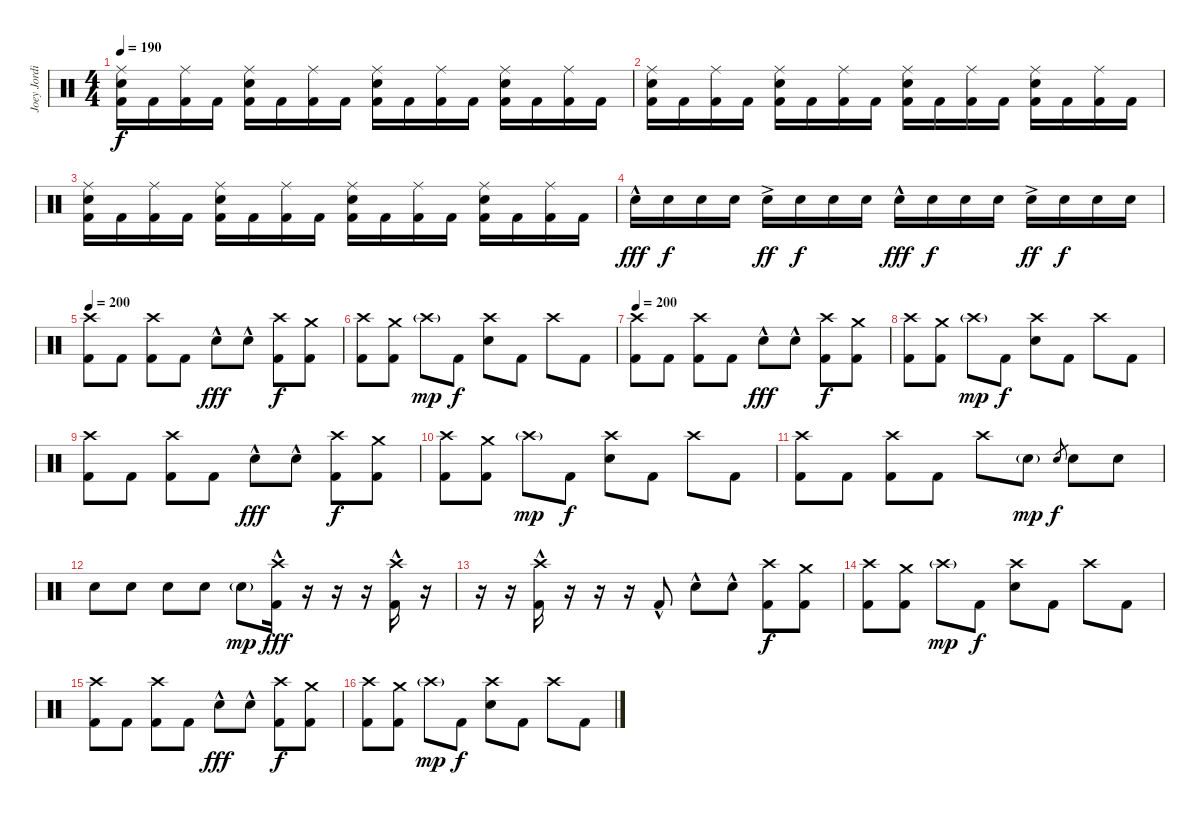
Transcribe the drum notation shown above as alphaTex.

\track ("Joey Jordison" "Joey Jordi") {instrument percussion}
\staff {score}
\articulation defaults
\ts (4 4)
\tempo 190
\clef neutral
\ks c
("Ride (middle)" "Electric Snare (hit)" "Kick (hit) 2").16{dy f} "Kick (hit) 2".16 ("Ride (middle)" "Kick (hit) 2").16 "Kick (hit) 2".16 ("Ride (middle)" "Electric Snare (hit)" "Kick (hit) 2").16 "Kick (hit) 2".16 ("Ride (middle)" "Kick (hit) 2").16 "Kick (hit) 2".16 ("Ride (middle)" "Electric Snare (hit)" "Kick (hit) 2").16 "Kick (hit) 2".16 ("Ride (middle)" "Kick (hit) 2").16 "Kick (hit) 2".16 ("Ride (middle)" "Electric Snare (hit)" "Kick (hit) 2").16 "Kick (hit) 2".16 ("Ride (middle)" "Kick (hit) 2").16 "Kick (hit) 2".16 |
("Ride (middle)" "Electric Snare (hit)" "Kick (hit) 2").16 "Kick (hit) 2".16 ("Ride (middle)" "Kick (hit) 2").16 "Kick (hit) 2".16 ("Ride (middle)" "Electric Snare (hit)" "Kick (hit) 2").16 "Kick (hit) 2".16 ("Ride (middle)" "Kick (hit) 2").16 "Kick (hit) 2".16 ("Ride (middle)" "Electric Snare (hit)" "Kick (hit) 2").16 "Kick (hit) 2".16 ("Ride (middle)" "Kick (hit) 2").16 "Kick (hit) 2".16 ("Ride (middle)" "Electric Snare (hit)" "Kick (hit) 2").16 "Kick (hit) 2".16 ("Ride (middle)" "Kick (hit) 2").16 "Kick (hit) 2".16 |
("Ride (middle)" "Electric Snare (hit)" "Kick (hit) 2").16 "Kick (hit) 2".16 ("Ride (middle)" "Kick (hit) 2").16 "Kick (hit) 2".16 ("Ride (middle)" "Electric Snare (hit)" "Kick (hit) 2").16 "Kick (hit) 2".16 ("Ride (middle)" "Kick (hit) 2").16 "Kick (hit) 2".16 ("Ride (middle)" "Electric Snare (hit)" "Kick (hit) 2").16 "Kick (hit) 2".16 ("Ride (middle)" "Kick (hit) 2").16 "Kick (hit) 2".16 ("Ride (middle)" "Electric Snare (hit)" "Kick (hit) 2").16 "Kick (hit) 2".16 ("Ride (middle)" "Kick (hit) 2").16 "Kick (hit) 2".16 |
"Electric Snare (hit)"{hac}.16{dy fff} "Electric Snare (hit)".16{dy f} "Electric Snare (hit)".16 "Electric Snare (hit)".16 "Electric Snare (hit)"{ac}.16{dy ff} "Electric Snare (hit)".16{dy f} "Electric Snare (hit)".16 "Electric Snare (hit)".16 "Electric Snare (hit)"{hac}.16{dy fff} "Electric Snare (hit)".16{dy f} "Electric Snare (hit)".16 "Electric Snare (hit)".16 "Electric Snare (hit)"{ac}.16{dy ff} "Electric Snare (hit)".16{dy f} "Electric Snare (hit)".16 "Electric Snare (hit)".16 |
\tempo 180
\tempo 200
("Crash high (hit)" "Kick (hit) 2").8 "Kick (hit) 2".8 ("Crash high (hit)" "Kick (hit) 2").8 "Kick (hit) 2".8 "Electric Snare (hit)"{hac}.8{dy fff} "Electric Snare (hit)"{hac}.8 ("Crash high (hit)" "Kick (hit) 2").8{dy f} ("Crash medium (hit)" "Kick (hit) 2").8 |
("Crash high (hit)" "Kick (hit) 2").8 ("Crash medium (hit)" "Kick (hit) 2").8 "Crash high (hit)"{g}.8{dy mp} "Kick (hit) 2".8{dy f} ("Crash high (hit)" "Electric Snare (hit)").8 "Kick (hit) 2".8 "Crash high (hit)".8 "Kick (hit) 2".8 |
\tempo 200
("Crash high (hit)" "Kick (hit) 2").8 "Kick (hit) 2".8 ("Crash high (hit)" "Kick (hit) 2").8 "Kick (hit) 2".8 "Electric Snare (hit)"{hac}.8{dy fff} "Electric Snare (hit)"{hac}.8 ("Crash high (hit)" "Kick (hit) 2").8{dy f} ("Crash medium (hit)" "Kick (hit) 2").8 |
("Crash high (hit)" "Kick (hit) 2").8 ("Crash medium (hit)" "Kick (hit) 2").8 "Crash high (hit)"{g}.8{dy mp} "Kick (hit) 2".8{dy f} ("Crash high (hit)" "Electric Snare (hit)").8 "Kick (hit) 2".8 "Crash high (hit)".8 "Kick (hit) 2".8 |
("Crash high (hit)" "Kick (hit) 2").8 "Kick (hit) 2".8 ("Crash high (hit)" "Kick (hit) 2").8 "Kick (hit) 2".8 "Electric Snare (hit)"{hac}.8{dy fff} "Electric Snare (hit)"{hac}.8 ("Crash high (hit)" "Kick (hit) 2").8{dy f} ("Crash medium (hit)" "Kick (hit) 2").8 |
("Crash high (hit)" "Kick (hit) 2").8 ("Crash medium (hit)" "Kick (hit) 2").8 "Crash high (hit)"{g}.8{dy mp} "Kick (hit) 2".8{dy f} ("Crash high (hit)" "Electric Snare (hit)").8 "Kick (hit) 2".8 "Crash high (hit)".8 "Kick (hit) 2".8 |
("Crash high (hit)" "Kick (hit) 2").8 "Kick (hit) 2".8 ("Crash high (hit)" "Kick (hit) 2").8 "Kick (hit) 2".8 "Crash high (hit)".8 "Electric Snare (hit)"{g}.8{dy mp} "Electric Snare (hit)".8{gr dy f} "Electric Snare (hit)".8 "Electric Snare (hit)".8 |
"Electric Snare (hit)".8 "Electric Snare (hit)".8 "Electric Snare (hit)".8 "Electric Snare (hit)".8 "Electric Snare (hit)"{g}.8{dy mp} ("Crash high (hit)"{hac} "Kick (hit) 2"{hac}).16{dy fff volume 11} r.16{volume 0} r.16 r.16 ("Crash high (hit)"{hac} "Kick (hit) 2"{hac}).16{volume 11} r.16{volume 0} |
r.16 r.16 ("Crash high (hit)"{hac} "Kick (hit) 2"{hac}).16{volume 11} r.16{volume 0} r.16 r.16 "Kick (hit) 2"{hac}.8 "Electric Snare (hit)"{hac}.8{volume 11} "Electric Snare (hit)"{hac}.8 ("Crash high (hit)" "Kick (hit) 2").8{dy f} ("Crash medium (hit)" "Kick (hit) 2").8 |
("Crash high (hit)" "Kick (hit) 2").8 ("Crash medium (hit)" "Kick (hit) 2").8 "Crash high (hit)"{g}.8{dy mp} "Kick (hit) 2".8{dy f} ("Crash high (hit)" "Electric Snare (hit)").8 "Kick (hit) 2".8 "Crash high (hit)".8 "Kick (hit) 2".8 |
("Crash high (hit)" "Kick (hit) 2").8 "Kick (hit) 2".8 ("Crash high (hit)" "Kick (hit) 2").8 "Kick (hit) 2".8 "Electric Snare (hit)"{hac}.8{dy fff} "Electric Snare (hit)"{hac}.8 ("Crash high (hit)" "Kick (hit) 2").8{dy f} ("Crash medium (hit)" "Kick (hit) 2").8 |
("Crash high (hit)" "Kick (hit) 2").8 ("Crash medium (hit)" "Kick (hit) 2").8 "Crash high (hit)"{g}.8{dy mp} "Kick (hit) 2".8{dy f} ("Crash high (hit)" "Electric Snare (hit)").8 "Kick (hit) 2".8 "Crash high (hit)".8 "Kick (hit) 2".8
